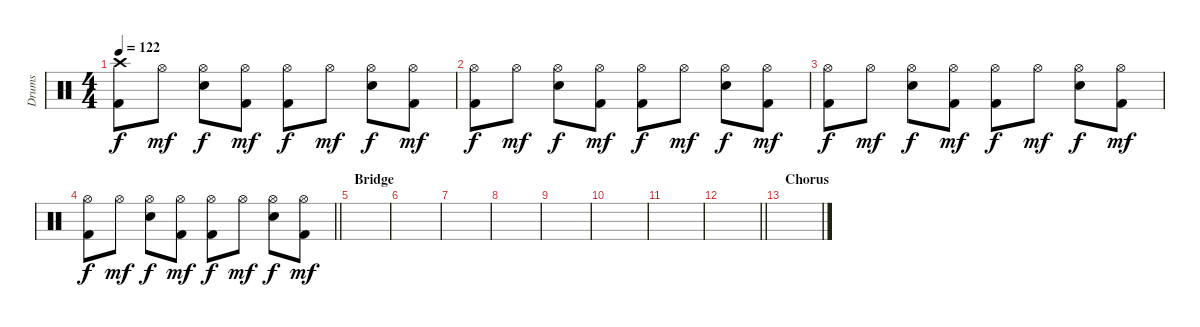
\track ("Drums" "Drums") {instrument percussion}
\staff {score}
\articulation defaults
\ts (4 4)
\tempo 122
\clef neutral
\ks c
("Crash high (hit)" "Kick (hit) 2").8{dy f} "Hi-Hat (open)".8{dy mf} ("Hi-Hat (open)" "Snare (hit) 2").8{dy f} ("Hi-Hat (open)" "Kick (hit) 2").8{dy mf} ("Hi-Hat (open)" "Kick (hit) 2").8{dy f} "Hi-Hat (open)".8{dy mf} ("Hi-Hat (open)" "Snare (hit) 2").8{dy f} ("Hi-Hat (open)" "Kick (hit) 2").8{dy mf} |
("Hi-Hat (open)" "Kick (hit) 2").8{dy f} "Hi-Hat (open)".8{dy mf} ("Hi-Hat (open)" "Snare (hit) 2").8{dy f} ("Hi-Hat (open)" "Kick (hit) 2").8{dy mf} ("Hi-Hat (open)" "Kick (hit) 2").8{dy f} "Hi-Hat (open)".8{dy mf} ("Hi-Hat (open)" "Snare (hit) 2").8{dy f} ("Hi-Hat (open)" "Kick (hit) 2").8{dy mf} |
("Hi-Hat (open)" "Kick (hit) 2").8{dy f} "Hi-Hat (open)".8{dy mf} ("Hi-Hat (open)" "Snare (hit) 2").8{dy f} ("Hi-Hat (open)" "Kick (hit) 2").8{dy mf} ("Hi-Hat (open)" "Kick (hit) 2").8{dy f} "Hi-Hat (open)".8{dy mf} ("Hi-Hat (open)" "Snare (hit) 2").8{dy f} ("Hi-Hat (open)" "Kick (hit) 2").8{dy mf} |
\barLineRight lightlight
("Hi-Hat (open)" "Kick (hit) 2").8{dy f} "Hi-Hat (open)".8{dy mf} ("Hi-Hat (open)" "Snare (hit) 2").8{dy f} ("Hi-Hat (open)" "Kick (hit) 2").8{dy mf} ("Hi-Hat (open)" "Kick (hit) 2").8{dy f} "Hi-Hat (open)".8{dy mf} ("Hi-Hat (open)" "Snare (hit) 2").8{dy f} ("Hi-Hat (open)" "Kick (hit) 2").8{dy mf} |
\section ("" "Bridge")
|
|
|
|
|
|
|
\barLineRight lightlight
|
\section ("" "Chorus")
